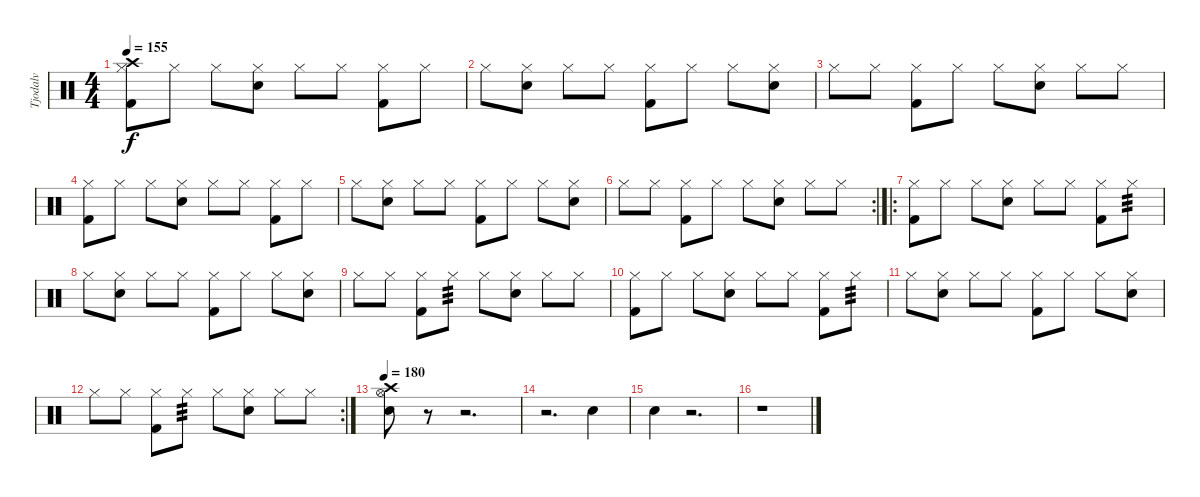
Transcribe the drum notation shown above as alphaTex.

\track ("Tjodalv" "Tjodalv") {instrument percussion}
\staff {score}
\articulation defaults
\ts (4 4)
\tempo 155
\clef neutral
\ks c
("Crash high (hit)" "Hi-Hat (closed)" "Kick (hit) 2").8{dy f} "Hi-Hat (closed)".8 "Hi-Hat (closed)".8 ("Hi-Hat (closed)" "Snare (hit) 2").8 "Hi-Hat (closed)".8 "Hi-Hat (closed)".8 ("Hi-Hat (closed)" "Kick (hit) 2").8 "Hi-Hat (closed)".8 |
"Hi-Hat (closed)".8 ("Hi-Hat (closed)" "Snare (hit) 2").8 "Hi-Hat (closed)".8 "Hi-Hat (closed)".8 ("Hi-Hat (closed)" "Kick (hit) 2").8 "Hi-Hat (closed)".8 "Hi-Hat (closed)".8 ("Hi-Hat (closed)" "Snare (hit) 2").8 |
"Hi-Hat (closed)".8 "Hi-Hat (closed)".8 ("Hi-Hat (closed)" "Kick (hit) 2").8 "Hi-Hat (closed)".8 "Hi-Hat (closed)".8 ("Hi-Hat (closed)" "Snare (hit) 2").8 "Hi-Hat (closed)".8 "Hi-Hat (closed)".8 |
("Hi-Hat (closed)" "Kick (hit) 2").8 "Hi-Hat (closed)".8 "Hi-Hat (closed)".8 ("Hi-Hat (closed)" "Snare (hit) 2").8 "Hi-Hat (closed)".8 "Hi-Hat (closed)".8 ("Hi-Hat (closed)" "Kick (hit) 2").8 "Hi-Hat (closed)".8 |
"Hi-Hat (closed)".8 ("Hi-Hat (closed)" "Snare (hit) 2").8 "Hi-Hat (closed)".8 "Hi-Hat (closed)".8 ("Hi-Hat (closed)" "Kick (hit) 2").8 "Hi-Hat (closed)".8 "Hi-Hat (closed)".8 ("Hi-Hat (closed)" "Snare (hit) 2").8 |
\rc 2 "Hi-Hat (closed)".8 "Hi-Hat (closed)".8
("Hi-Hat (closed)" "Kick (hit) 2").8 "Hi-Hat (closed)".8 "Hi-Hat (closed)".8 ("Hi-Hat (closed)" "Snare (hit) 2").8 "Hi-Hat (closed)".8 "Hi-Hat (closed)".8 |
\ro
("Hi-Hat (closed)" "Kick (hit) 2").8 "Hi-Hat (closed)".8 "Hi-Hat (closed)".8 ("Hi-Hat (closed)" "Snare (hit) 2").8 "Hi-Hat (closed)".8 "Hi-Hat (closed)".8 ("Hi-Hat (closed)" "Kick (hit) 2").8 "Hi-Hat (closed)".8{tp 3} |
"Hi-Hat (closed)".8 ("Hi-Hat (closed)" "Snare (hit) 2").8 "Hi-Hat (closed)".8 "Hi-Hat (closed)".8 ("Hi-Hat (closed)" "Kick (hit) 2").8 "Hi-Hat (closed)".8 "Hi-Hat (closed)".8 ("Hi-Hat (closed)" "Snare (hit) 2").8 |
"Hi-Hat (closed)".8 "Hi-Hat (closed)".8 ("Hi-Hat (closed)" "Kick (hit) 2").8 "Hi-Hat (closed)".8{tp 3} "Hi-Hat (closed)".8 ("Hi-Hat (closed)" "Snare (hit) 2").8 "Hi-Hat (closed)".8 "Hi-Hat (closed)".8 |
("Hi-Hat (closed)" "Kick (hit) 2").8 "Hi-Hat (closed)".8 "Hi-Hat (closed)".8 ("Hi-Hat (closed)" "Snare (hit) 2").8 "Hi-Hat (closed)".8 "Hi-Hat (closed)".8 ("Hi-Hat (closed)" "Kick (hit) 2").8 "Hi-Hat (closed)".8{tp 3} |
"Hi-Hat (closed)".8 ("Hi-Hat (closed)" "Snare (hit) 2").8 "Hi-Hat (closed)".8 "Hi-Hat (closed)".8 ("Hi-Hat (closed)" "Kick (hit) 2").8 "Hi-Hat (closed)".8 "Hi-Hat (closed)".8 ("Hi-Hat (closed)" "Snare (hit) 2").8 |
\rc 2 "Hi-Hat (closed)".8 "Hi-Hat (closed)".8
("Hi-Hat (closed)" "Kick (hit) 2").8 "Hi-Hat (closed)".8{tp 3} "Hi-Hat (closed)".8 ("Hi-Hat (closed)" "Snare (hit) 2").8 "Hi-Hat (closed)".8 "Hi-Hat (closed)".8 |
\tempo 180
("Crash high (hit)" "Hi-Hat (open)" "Snare (hit) 2").8 r.8 r.2{d} |
r.2{d} "Snare (hit) 2".4 |
"Snare (hit) 2".4 r.2{d} |
r.1
